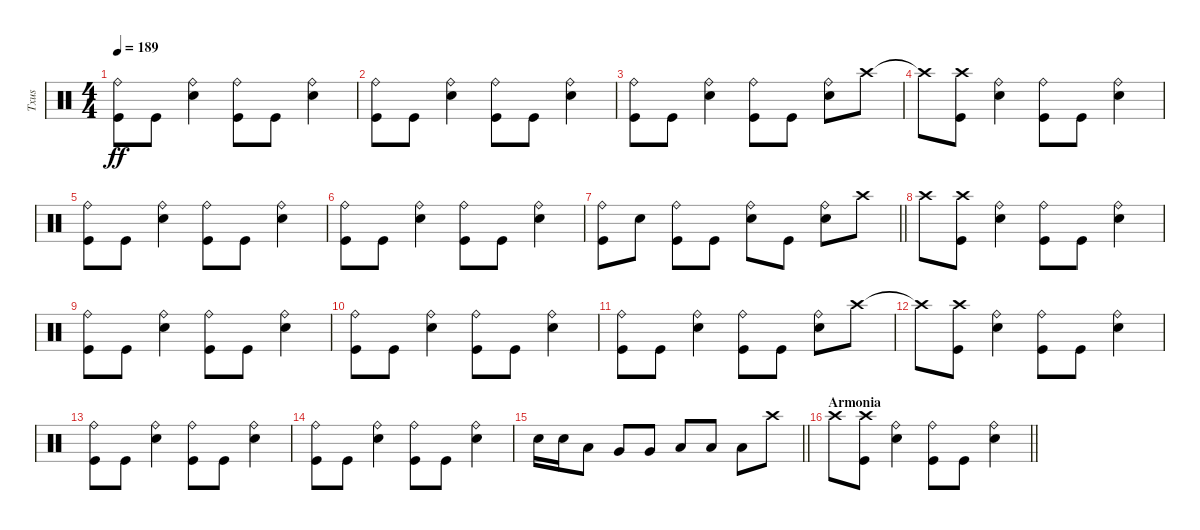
\track ("Txus" "Txus") {instrument percussion}
\staff {score}
\articulation defaults
\ts (4 4)
\tempo 189
\clef neutral
\ks c
("Kick (hit)" "Ride (bell)").8{dy ff} "Kick (hit)".8 ("Ride (bell)" "Snare (hit) 2").4 ("Ride (bell)" "Kick (hit)").8 "Kick (hit)".8 ("Ride (bell)" "Snare (hit) 2").4 |
("Kick (hit)" "Ride (bell)").8 "Kick (hit)".8 ("Ride (bell)" "Snare (hit) 2").4 ("Ride (bell)" "Kick (hit)").8 "Kick (hit)".8 ("Ride (bell)" "Snare (hit) 2").4 |
("Kick (hit)" "Ride (bell)").8 "Kick (hit)".8 ("Ride (bell)" "Snare (hit) 2").4 ("Ride (bell)" "Kick (hit)").8 "Kick (hit)".8 ("Ride (bell)" "Snare (hit) 2").8 "Crash high (hit)".8 |
"Crash high (hit)"{t}.8 ("Kick (hit)" "Crash high (hit)").8 ("Ride (bell)" "Snare (hit) 2").4 ("Ride (bell)" "Kick (hit)").8 "Kick (hit)".8 ("Ride (bell)" "Snare (hit) 2").4 |
("Kick (hit)" "Ride (bell)").8 "Kick (hit)".8 ("Ride (bell)" "Snare (hit) 2").4 ("Ride (bell)" "Kick (hit)").8 "Kick (hit)".8 ("Ride (bell)" "Snare (hit) 2").4 |
("Kick (hit)" "Ride (bell)").8 "Kick (hit)".8 ("Ride (bell)" "Snare (hit) 2").4 ("Ride (bell)" "Kick (hit)").8 "Kick (hit)".8 ("Ride (bell)" "Snare (hit) 2").4 |
\barLineRight lightlight
("Kick (hit)" "Ride (bell)").8 "Snare (hit) 2".8 ("Ride (bell)" "Kick (hit)").8 "Kick (hit)".8 ("Ride (bell)" "Snare (hit) 2").8 "Kick (hit)".8 ("Ride (bell)" "Snare (hit) 2").8 "Crash high (hit)".8 |
"Crash high (hit)".8 ("Kick (hit)" "Crash high (hit)").8 ("Ride (bell)" "Snare (hit) 2").4 ("Ride (bell)" "Kick (hit)").8 "Kick (hit)".8 ("Ride (bell)" "Snare (hit) 2").4 |
("Kick (hit)" "Ride (bell)").8 "Kick (hit)".8 ("Ride (bell)" "Snare (hit) 2").4 ("Ride (bell)" "Kick (hit)").8 "Kick (hit)".8 ("Ride (bell)" "Snare (hit) 2").4 |
("Kick (hit)" "Ride (bell)").8 "Kick (hit)".8 ("Ride (bell)" "Snare (hit) 2").4 ("Ride (bell)" "Kick (hit)").8 "Kick (hit)".8 ("Ride (bell)" "Snare (hit) 2").4 |
("Kick (hit)" "Ride (bell)").8 "Kick (hit)".8 ("Ride (bell)" "Snare (hit) 2").4 ("Ride (bell)" "Kick (hit)").8 "Kick (hit)".8 ("Ride (bell)" "Snare (hit) 2").8 "Crash high (hit)".8 |
"Crash high (hit)"{t}.8 ("Kick (hit)" "Crash high (hit)").8 ("Ride (bell)" "Snare (hit) 2").4 ("Ride (bell)" "Kick (hit)").8 "Kick (hit)".8 ("Ride (bell)" "Snare (hit) 2").4 |
("Kick (hit)" "Ride (bell)").8 "Kick (hit)".8 ("Ride (bell)" "Snare (hit) 2").4 ("Ride (bell)" "Kick (hit)").8 "Kick (hit)".8 ("Ride (bell)" "Snare (hit) 2").4 |
("Kick (hit)" "Ride (bell)").8 "Kick (hit)".8 ("Ride (bell)" "Snare (hit) 2").4 ("Ride (bell)" "Kick (hit)").8 "Kick (hit)".8 ("Ride (bell)" "Snare (hit) 2").4 |
\barLineRight lightlight "Snare (hit) 2".16 "Snare (hit) 2".16 "Low Tom (hit)".8 "Very Low Tom (hit)".8 "Very Low Tom (hit)".8 "Low Floor Tom (hit)".8 "Low Floor Tom (hit)".8 "Low Floor Tom (hit)".8 "Crash high (hit)".8
|
\section ("" "Armonia")
\barLineRight lightlight "Crash high (hit)".8
("Kick (hit)" "Crash high (hit)").8 ("Ride (bell)" "Snare (hit) 2").4 ("Ride (bell)" "Kick (hit)").8 "Kick (hit)".8 ("Ride (bell)" "Snare (hit) 2").4
